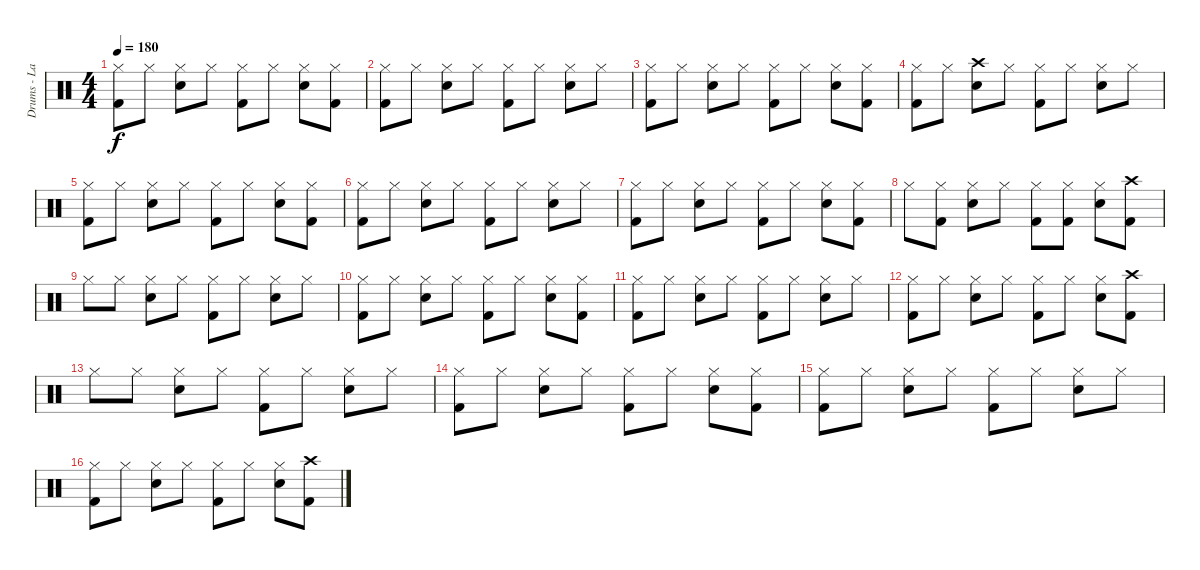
\track ("Drums - Lars" "Drums - La") {instrument percussion}
\staff {score}
\articulation defaults
\ts (4 4)
\tempo 180
\clef neutral
\ks c
("Hi-Hat (closed)" "Kick (hit) 2").8{dy f} "Hi-Hat (closed)".8 ("Hi-Hat (closed)" "Snare (hit) 2").8 "Hi-Hat (closed)".8 ("Hi-Hat (closed)" "Kick (hit) 2").8 "Hi-Hat (closed)".8 ("Hi-Hat (closed)" "Snare (hit) 2").8 ("Hi-Hat (closed)" "Kick (hit) 2").8 |
("Hi-Hat (closed)" "Kick (hit) 2").8 "Hi-Hat (closed)".8 ("Hi-Hat (closed)" "Snare (hit) 2").8 "Hi-Hat (closed)".8 ("Hi-Hat (closed)" "Kick (hit) 2").8 "Hi-Hat (closed)".8 ("Hi-Hat (closed)" "Snare (hit) 2").8 "Hi-Hat (closed)".8 |
("Hi-Hat (closed)" "Kick (hit) 2").8 "Hi-Hat (closed)".8 ("Hi-Hat (closed)" "Snare (hit) 2").8 "Hi-Hat (closed)".8 ("Hi-Hat (closed)" "Kick (hit) 2").8 "Hi-Hat (closed)".8 ("Hi-Hat (closed)" "Snare (hit) 2").8 ("Hi-Hat (closed)" "Kick (hit) 2").8 |
("Hi-Hat (closed)" "Kick (hit) 2").8 "Hi-Hat (closed)".8 ("Crash high (hit)" "Snare (hit) 2").8 "Hi-Hat (closed)".8 ("Hi-Hat (closed)" "Kick (hit) 2").8 "Hi-Hat (closed)".8 ("Hi-Hat (closed)" "Snare (hit) 2").8 "Hi-Hat (closed)".8 |
("Hi-Hat (closed)" "Kick (hit) 2").8 "Hi-Hat (closed)".8 ("Hi-Hat (closed)" "Snare (hit) 2").8 "Hi-Hat (closed)".8 ("Hi-Hat (closed)" "Kick (hit) 2").8 "Hi-Hat (closed)".8 ("Hi-Hat (closed)" "Snare (hit) 2").8 ("Hi-Hat (closed)" "Kick (hit) 2").8 |
("Hi-Hat (closed)" "Kick (hit) 2").8 "Hi-Hat (closed)".8 ("Hi-Hat (closed)" "Snare (hit) 2").8 "Hi-Hat (closed)".8 ("Hi-Hat (closed)" "Kick (hit) 2").8 "Hi-Hat (closed)".8 ("Hi-Hat (closed)" "Snare (hit) 2").8 "Hi-Hat (closed)".8 |
("Hi-Hat (closed)" "Kick (hit) 2").8 "Hi-Hat (closed)".8 ("Hi-Hat (closed)" "Snare (hit) 2").8 "Hi-Hat (closed)".8 ("Hi-Hat (closed)" "Kick (hit) 2").8 "Hi-Hat (closed)".8 ("Hi-Hat (closed)" "Snare (hit) 2").8 ("Hi-Hat (closed)" "Kick (hit) 2").8 |
"Hi-Hat (closed)".8 ("Hi-Hat (closed)" "Kick (hit) 2").8 ("Hi-Hat (closed)" "Snare (hit) 2").8 "Hi-Hat (closed)".8 ("Hi-Hat (closed)" "Kick (hit) 2").8 ("Hi-Hat (closed)" "Kick (hit) 2").8 ("Hi-Hat (closed)" "Snare (hit) 2").8 ("Crash high (hit)" "Kick (hit) 2").8 |
"Hi-Hat (closed)".8 "Hi-Hat (closed)".8 ("Hi-Hat (closed)" "Snare (hit) 2").8 "Hi-Hat (closed)".8 ("Hi-Hat (closed)" "Kick (hit) 2").8 "Hi-Hat (closed)".8 ("Hi-Hat (closed)" "Snare (hit) 2").8 "Hi-Hat (closed)".8 |
("Hi-Hat (closed)" "Kick (hit) 2").8 "Hi-Hat (closed)".8 ("Hi-Hat (closed)" "Snare (hit) 2").8 "Hi-Hat (closed)".8 ("Hi-Hat (closed)" "Kick (hit) 2").8 "Hi-Hat (closed)".8 ("Hi-Hat (closed)" "Snare (hit) 2").8 ("Hi-Hat (closed)" "Kick (hit) 2").8 |
("Hi-Hat (closed)" "Kick (hit) 2").8 "Hi-Hat (closed)".8 ("Hi-Hat (closed)" "Snare (hit) 2").8 "Hi-Hat (closed)".8 ("Hi-Hat (closed)" "Kick (hit) 2").8 "Hi-Hat (closed)".8 ("Hi-Hat (closed)" "Snare (hit) 2").8 "Hi-Hat (closed)".8 |
("Hi-Hat (closed)" "Kick (hit) 2").8 "Hi-Hat (closed)".8 ("Hi-Hat (closed)" "Snare (hit) 2").8 "Hi-Hat (closed)".8 ("Hi-Hat (closed)" "Kick (hit) 2").8 "Hi-Hat (closed)".8 ("Hi-Hat (closed)" "Snare (hit) 2").8 ("Crash high (hit)" "Kick (hit) 2").8 |
"Hi-Hat (closed)".8 "Hi-Hat (closed)".8 ("Hi-Hat (closed)" "Snare (hit) 2").8 "Hi-Hat (closed)".8 ("Hi-Hat (closed)" "Kick (hit) 2").8 "Hi-Hat (closed)".8 ("Hi-Hat (closed)" "Snare (hit) 2").8 "Hi-Hat (closed)".8 |
("Hi-Hat (closed)" "Kick (hit) 2").8 "Hi-Hat (closed)".8 ("Hi-Hat (closed)" "Snare (hit) 2").8 "Hi-Hat (closed)".8 ("Hi-Hat (closed)" "Kick (hit) 2").8 "Hi-Hat (closed)".8 ("Hi-Hat (closed)" "Snare (hit) 2").8 ("Hi-Hat (closed)" "Kick (hit) 2").8 |
("Hi-Hat (closed)" "Kick (hit) 2").8 "Hi-Hat (closed)".8 ("Hi-Hat (closed)" "Snare (hit) 2").8 "Hi-Hat (closed)".8 ("Hi-Hat (closed)" "Kick (hit) 2").8 "Hi-Hat (closed)".8 ("Hi-Hat (closed)" "Snare (hit) 2").8 "Hi-Hat (closed)".8 |
("Hi-Hat (closed)" "Kick (hit) 2").8 "Hi-Hat (closed)".8 ("Hi-Hat (closed)" "Snare (hit) 2").8 "Hi-Hat (closed)".8 ("Hi-Hat (closed)" "Kick (hit) 2").8 "Hi-Hat (closed)".8 ("Hi-Hat (closed)" "Snare (hit) 2").8 ("Crash high (hit)" "Kick (hit) 2").8
